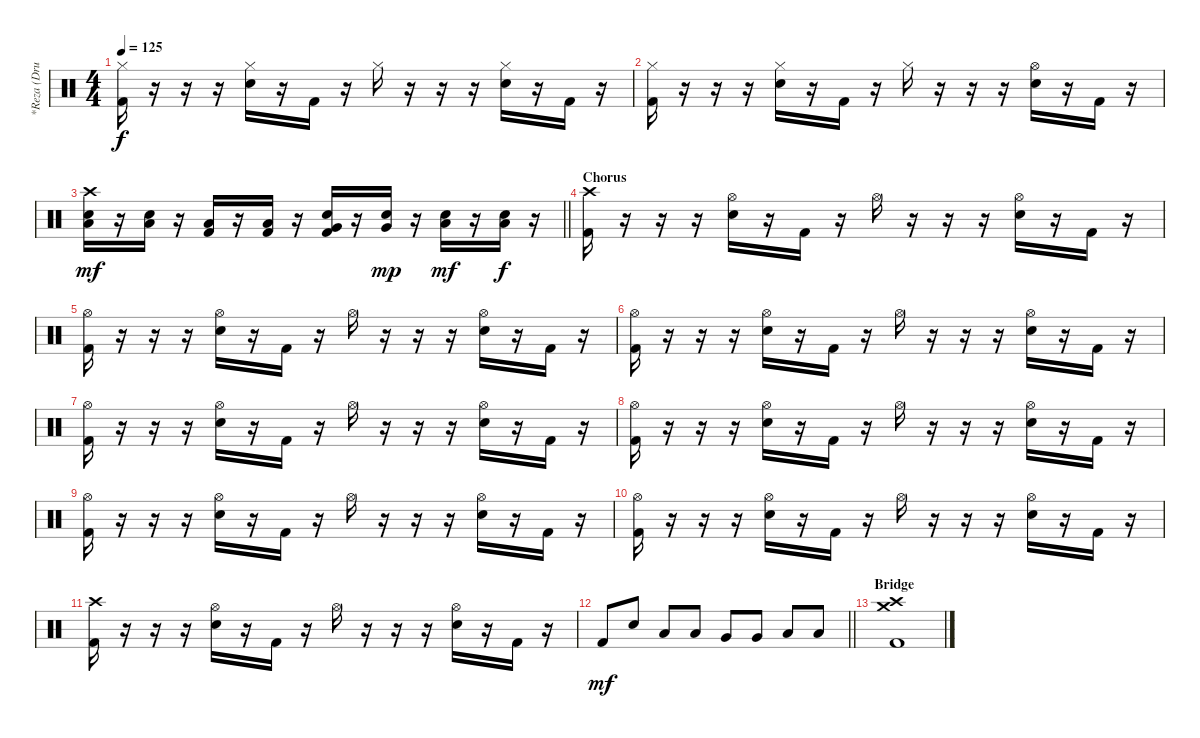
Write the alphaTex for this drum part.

\track ("*Reza (Drum)" "*Reza (Dru") {instrument percussion}
\staff {score}
\articulation defaults
\ts (4 4)
\tempo 125
\clef neutral
\ks c
("Hi-Hat (closed)" "Kick (hit) 2").16{dy f} r.16 r.16 r.16 ("Hi-Hat (closed)" "Electric Snare (hit)").16 r.16 "Kick (hit) 2".16 r.16 "Hi-Hat (closed)".16 r.16 r.16 r.16 ("Hi-Hat (closed)" "Electric Snare (hit)").16 r.16 "Kick (hit) 2".16 r.16 |
("Hi-Hat (closed)" "Kick (hit) 2").16 r.16 r.16 r.16 ("Hi-Hat (closed)" "Electric Snare (hit)").16 r.16 "Kick (hit) 2".16 r.16 "Hi-Hat (closed)".16 r.16 r.16 r.16 ("Hi-Hat (open)" "Electric Snare (hit)").16 r.16 "Kick (hit) 2".16 r.16 |
\barLineRight lightlight
("Crash high (hit)" "Electric Snare (hit)" "Low Floor Tom (hit)").16{dy mf} r.16 ("Electric Snare (hit)" "Low Floor Tom (hit)").16 r.16 ("Low Tom (hit)" "Kick (hit) 2").16 r.16 ("Low Tom (hit)" "Kick (hit) 2").16 r.16 ("Electric Snare (hit)" "Very Low Tom (hit)" "Kick (hit) 2").16 r.16 ("Electric Snare (hit)" "Very Low Tom (hit)").16{dy mp} r.16 ("Electric Snare (hit)" "Low Floor Tom (hit)").16{dy mf} r.16 ("Electric Snare (hit)" "Low Floor Tom (hit)").16{dy f} r.16 |
\section ("" "Chorus")
("Crash high (hit)" "Kick (hit) 2").16 r.16 r.16 r.16 ("Hi-Hat (open)" "Electric Snare (hit)").16 r.16 "Kick (hit) 2".16 r.16 "Hi-Hat (open)".16 r.16 r.16 r.16 ("Hi-Hat (open)" "Electric Snare (hit)").16 r.16 "Kick (hit) 2".16 r.16 |
("Hi-Hat (open)" "Kick (hit) 2").16 r.16 r.16 r.16 ("Hi-Hat (open)" "Electric Snare (hit)").16 r.16 "Kick (hit) 2".16 r.16 "Hi-Hat (open)".16 r.16 r.16 r.16 ("Hi-Hat (open)" "Electric Snare (hit)").16 r.16 "Kick (hit) 2".16 r.16 |
("Hi-Hat (open)" "Kick (hit) 2").16 r.16 r.16 r.16 ("Hi-Hat (open)" "Electric Snare (hit)").16 r.16 "Kick (hit) 2".16 r.16 "Hi-Hat (open)".16 r.16 r.16 r.16 ("Hi-Hat (open)" "Electric Snare (hit)").16 r.16 "Kick (hit) 2".16 r.16 |
("Hi-Hat (open)" "Kick (hit) 2").16 r.16 r.16 r.16 ("Hi-Hat (open)" "Electric Snare (hit)").16 r.16 "Kick (hit) 2".16 r.16 "Hi-Hat (open)".16 r.16 r.16 r.16 ("Hi-Hat (open)" "Electric Snare (hit)").16 r.16 "Kick (hit) 2".16 r.16 |
("Hi-Hat (open)" "Kick (hit) 2").16 r.16 r.16 r.16 ("Hi-Hat (open)" "Electric Snare (hit)").16 r.16 "Kick (hit) 2".16 r.16 "Hi-Hat (open)".16 r.16 r.16 r.16 ("Hi-Hat (open)" "Electric Snare (hit)").16 r.16 "Kick (hit) 2".16 r.16 |
("Hi-Hat (open)" "Kick (hit) 2").16 r.16 r.16 r.16 ("Hi-Hat (open)" "Electric Snare (hit)").16 r.16 "Kick (hit) 2".16 r.16 "Hi-Hat (open)".16 r.16 r.16 r.16 ("Hi-Hat (open)" "Electric Snare (hit)").16 r.16 "Kick (hit) 2".16 r.16 |
("Hi-Hat (open)" "Kick (hit) 2").16 r.16 r.16 r.16 ("Hi-Hat (open)" "Electric Snare (hit)").16 r.16 "Kick (hit) 2".16 r.16 "Hi-Hat (open)".16 r.16 r.16 r.16 ("Hi-Hat (open)" "Electric Snare (hit)").16 r.16 "Kick (hit) 2".16 r.16 |
("Crash high (hit)" "Kick (hit) 2").16 r.16 r.16 r.16 ("Hi-Hat (open)" "Electric Snare (hit)").16 r.16 "Kick (hit) 2".16 r.16 "Hi-Hat (open)".16 r.16 r.16 r.16 ("Hi-Hat (open)" "Electric Snare (hit)").16 r.16 "Kick (hit) 2".16 r.16 |
\barLineRight lightlight "Kick (hit) 2".8{dy mf} "Electric Snare (hit)".8 "Low Tom (hit)".8 "Low Tom (hit)".8 "Very Low Tom (hit)".8 "Very Low Tom (hit)".8 "Low Floor Tom (hit)".8 "Low Floor Tom (hit)".8
|
\section ("" "Bridge")
("Crash high (hit)" "Crash medium (hit)" "Kick (hit) 2").1
